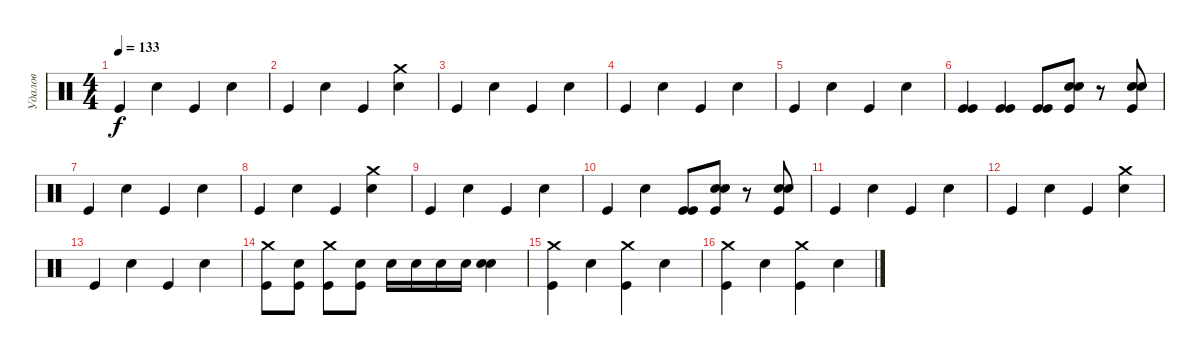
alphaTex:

\track ("Удалов" "Удалов") {instrument percussion}
\staff {score}
\articulation defaults
\ts (4 4)
\tempo 133
\clef neutral
\ks c "Kick (hit)".4{dy f} "Electric Snare (hit)".4 "Kick (hit)".4 "Electric Snare (hit)".4
|
"Kick (hit)".4 "Electric Snare (hit)".4 "Kick (hit)".4 ("Crash medium (hit)" "Electric Snare (hit)").4 |
"Kick (hit)".4 "Electric Snare (hit)".4 "Kick (hit)".4 "Electric Snare (hit)".4 |
"Kick (hit)".4 "Electric Snare (hit)".4 "Kick (hit)".4 "Electric Snare (hit)".4 |
"Kick (hit)".4 "Electric Snare (hit)".4 "Kick (hit)".4 "Electric Snare (hit)".4 |
("Kick (hit)" "Kick (hit)").4 ("Kick (hit)" "Kick (hit)").4 ("Kick (hit)" "Kick (hit)").8 ("Electric Snare (hit)" "Electric Snare (hit)" "Kick (hit)").8 r.8 ("Electric Snare (hit)" "Electric Snare (hit)" "Kick (hit)").8 |
"Kick (hit)".4 "Electric Snare (hit)".4 "Kick (hit)".4 "Electric Snare (hit)".4 |
"Kick (hit)".4 "Electric Snare (hit)".4 "Kick (hit)".4 ("Crash medium (hit)" "Electric Snare (hit)").4 |
"Kick (hit)".4 "Electric Snare (hit)".4 "Kick (hit)".4 "Electric Snare (hit)".4 |
"Kick (hit)".4 "Electric Snare (hit)".4 ("Kick (hit)" "Kick (hit)").8 ("Electric Snare (hit)" "Electric Snare (hit)" "Kick (hit)").8 r.8 ("Electric Snare (hit)" "Electric Snare (hit)" "Kick (hit)").8 |
"Kick (hit)".4 "Electric Snare (hit)".4 "Kick (hit)".4 "Electric Snare (hit)".4 |
"Kick (hit)".4 "Electric Snare (hit)".4 "Kick (hit)".4 ("Crash medium (hit)" "Electric Snare (hit)").4 |
"Kick (hit)".4 "Electric Snare (hit)".4 "Kick (hit)".4 "Electric Snare (hit)".4 |
("Crash medium (hit)" "Kick (hit)").8 ("Electric Snare (hit)" "Kick (hit)").8 ("Crash medium (hit)" "Kick (hit)").8 ("Electric Snare (hit)" "Kick (hit)").8 "Electric Snare (hit)".16 "Electric Snare (hit)".16 "Electric Snare (hit)".16 "Electric Snare (hit)".16 ("Electric Snare (hit)" "Snare (hit) 2").4 |
("Crash medium (hit)" "Kick (hit)").4 "Electric Snare (hit)".4 ("Crash medium (hit)" "Kick (hit)").4 "Electric Snare (hit)".4 |
("Crash medium (hit)" "Kick (hit)").4 "Electric Snare (hit)".4 ("Crash medium (hit)" "Kick (hit)").4 "Electric Snare (hit)".4
